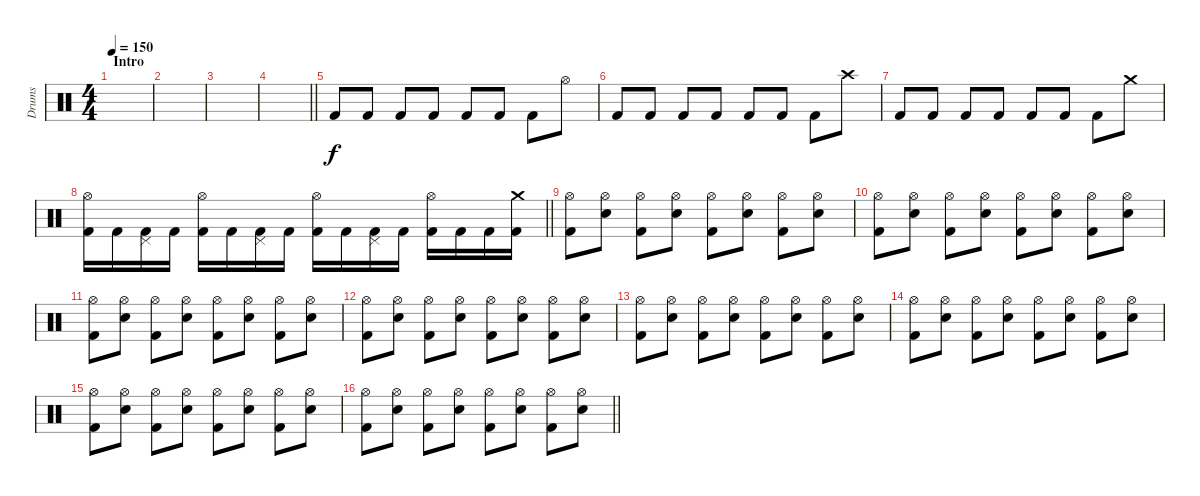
\track ("Drums" "Drums") {instrument percussion}
\staff {score}
\articulation defaults
\ts (4 4)
\section ("" "Intro")
\tempo 150
\clef neutral
\ks c
|
|
|
\barLineRight lightlight
|
"Kick (hit) 2".8 "Kick (hit) 2".8 "Kick (hit) 2".8 "Kick (hit) 2".8 "Kick (hit) 2".8 "Kick (hit) 2".8 "Kick (hit) 2".8 "Hi-Hat (open)".8 |
"Kick (hit) 2".8 "Kick (hit) 2".8 "Kick (hit) 2".8 "Kick (hit) 2".8 "Kick (hit) 2".8 "Kick (hit) 2".8 "Kick (hit) 2".8 "Crash high (hit)".8 |
"Kick (hit) 2".8 "Kick (hit) 2".8 "Kick (hit) 2".8 "Kick (hit) 2".8 "Kick (hit) 2".8 "Kick (hit) 2".8 "Kick (hit) 2".8 "Crash medium (hit)".8 |
\barLineRight lightlight
("Hi-Hat (open)" "Kick (hit) 2").16 "Kick (hit) 2".16 ("Pedal Hi-Hat (hit)" "Kick (hit) 2").16 "Kick (hit) 2".16 ("Hi-Hat (open)" "Kick (hit) 2").16 "Kick (hit) 2".16 ("Pedal Hi-Hat (hit)" "Kick (hit) 2").16 "Kick (hit) 2".16 ("Hi-Hat (open)" "Kick (hit) 2").16 "Kick (hit) 2".16 ("Pedal Hi-Hat (hit)" "Kick (hit) 2").16 "Kick (hit) 2".16 ("Hi-Hat (open)" "Kick (hit) 2").16 "Kick (hit) 2".16 "Kick (hit) 2".16 ("Crash medium (hit)" "Kick (hit) 2").16 |
("Hi-Hat (open)" "Kick (hit) 2").8 ("Hi-Hat (open)" "Snare (hit) 2").8 ("Hi-Hat (open)" "Kick (hit) 2").8 ("Hi-Hat (open)" "Snare (hit) 2").8 ("Hi-Hat (open)" "Kick (hit) 2").8 ("Hi-Hat (open)" "Snare (hit) 2").8 ("Hi-Hat (open)" "Kick (hit) 2").8 ("Hi-Hat (open)" "Snare (hit) 2").8 |
("Hi-Hat (open)" "Kick (hit) 2").8 ("Hi-Hat (open)" "Snare (hit) 2").8 ("Hi-Hat (open)" "Kick (hit) 2").8 ("Hi-Hat (open)" "Snare (hit) 2").8 ("Hi-Hat (open)" "Kick (hit) 2").8 ("Hi-Hat (open)" "Snare (hit) 2").8 ("Hi-Hat (open)" "Kick (hit) 2").8 ("Hi-Hat (open)" "Snare (hit) 2").8 |
("Hi-Hat (open)" "Kick (hit) 2").8 ("Hi-Hat (open)" "Snare (hit) 2").8 ("Hi-Hat (open)" "Kick (hit) 2").8 ("Hi-Hat (open)" "Snare (hit) 2").8 ("Hi-Hat (open)" "Kick (hit) 2").8 ("Hi-Hat (open)" "Snare (hit) 2").8 ("Hi-Hat (open)" "Kick (hit) 2").8 ("Hi-Hat (open)" "Snare (hit) 2").8 |
("Hi-Hat (open)" "Kick (hit) 2").8 ("Hi-Hat (open)" "Snare (hit) 2").8 ("Hi-Hat (open)" "Kick (hit) 2").8 ("Hi-Hat (open)" "Snare (hit) 2").8 ("Hi-Hat (open)" "Kick (hit) 2").8 ("Hi-Hat (open)" "Snare (hit) 2").8 ("Hi-Hat (open)" "Kick (hit) 2").8 ("Hi-Hat (open)" "Snare (hit) 2").8 |
("Hi-Hat (open)" "Kick (hit) 2").8 ("Hi-Hat (open)" "Snare (hit) 2").8 ("Hi-Hat (open)" "Kick (hit) 2").8 ("Hi-Hat (open)" "Snare (hit) 2").8 ("Hi-Hat (open)" "Kick (hit) 2").8 ("Hi-Hat (open)" "Snare (hit) 2").8 ("Hi-Hat (open)" "Kick (hit) 2").8 ("Hi-Hat (open)" "Snare (hit) 2").8 |
("Hi-Hat (open)" "Kick (hit) 2").8 ("Hi-Hat (open)" "Snare (hit) 2").8 ("Hi-Hat (open)" "Kick (hit) 2").8 ("Hi-Hat (open)" "Snare (hit) 2").8 ("Hi-Hat (open)" "Kick (hit) 2").8 ("Hi-Hat (open)" "Snare (hit) 2").8 ("Hi-Hat (open)" "Kick (hit) 2").8 ("Hi-Hat (open)" "Snare (hit) 2").8 |
("Hi-Hat (open)" "Kick (hit) 2").8 ("Hi-Hat (open)" "Snare (hit) 2").8 ("Hi-Hat (open)" "Kick (hit) 2").8 ("Hi-Hat (open)" "Snare (hit) 2").8 ("Hi-Hat (open)" "Kick (hit) 2").8 ("Hi-Hat (open)" "Snare (hit) 2").8 ("Hi-Hat (open)" "Kick (hit) 2").8 ("Hi-Hat (open)" "Snare (hit) 2").8 |
\barLineRight lightlight
("Hi-Hat (open)" "Kick (hit) 2").8 ("Hi-Hat (open)" "Snare (hit) 2").8 ("Hi-Hat (open)" "Kick (hit) 2").8 ("Hi-Hat (open)" "Snare (hit) 2").8 ("Hi-Hat (open)" "Kick (hit) 2").8 ("Hi-Hat (open)" "Snare (hit) 2").8 ("Hi-Hat (open)" "Kick (hit) 2").8 ("Hi-Hat (open)" "Snare (hit) 2").8
